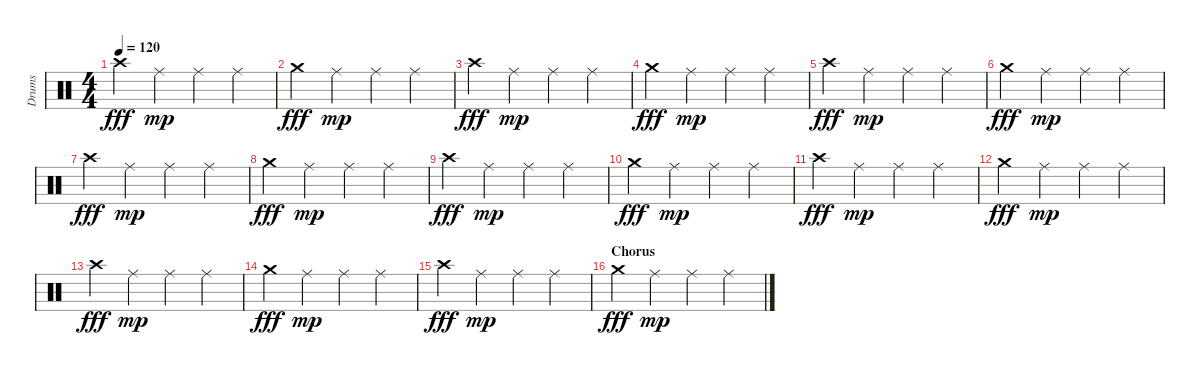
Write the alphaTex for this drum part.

\track ("Drums" "Drums") {instrument percussion}
\staff {score}
\articulation defaults
\ts (4 4)
\tempo 120
\clef neutral
\ks c "Crash high (hit)".4{dy fff} "Ride (middle)".4{dy mp} "Ride (middle)".4 "Ride (middle)".4
|
"Crash medium (hit)".4{dy fff} "Ride (middle)".4{dy mp} "Ride (middle)".4 "Ride (middle)".4 |
"Crash high (hit)".4{dy fff} "Ride (middle)".4{dy mp} "Ride (middle)".4 "Ride (middle)".4 |
"Crash medium (hit)".4{dy fff} "Ride (middle)".4{dy mp} "Ride (middle)".4 "Ride (middle)".4 |
"Crash high (hit)".4{dy fff} "Ride (middle)".4{dy mp} "Ride (middle)".4 "Ride (middle)".4 |
"Crash medium (hit)".4{dy fff} "Ride (middle)".4{dy mp} "Ride (middle)".4 "Ride (middle)".4 |
"Crash high (hit)".4{dy fff} "Ride (middle)".4{dy mp} "Ride (middle)".4 "Ride (middle)".4 |
"Crash medium (hit)".4{dy fff} "Ride (middle)".4{dy mp} "Ride (middle)".4 "Ride (middle)".4 |
"Crash high (hit)".4{dy fff} "Ride (middle)".4{dy mp} "Ride (middle)".4 "Ride (middle)".4 |
"Crash medium (hit)".4{dy fff} "Ride (middle)".4{dy mp} "Ride (middle)".4 "Ride (middle)".4 |
"Crash high (hit)".4{dy fff} "Ride (middle)".4{dy mp} "Ride (middle)".4 "Ride (middle)".4 |
"Crash medium (hit)".4{dy fff} "Ride (middle)".4{dy mp} "Ride (middle)".4 "Ride (middle)".4 |
"Crash high (hit)".4{dy fff} "Ride (middle)".4{dy mp} "Ride (middle)".4 "Ride (middle)".4 |
"Crash medium (hit)".4{dy fff} "Ride (middle)".4{dy mp} "Ride (middle)".4 "Ride (middle)".4 |
"Crash high (hit)".4{dy fff} "Ride (middle)".4{dy mp} "Ride (middle)".4 "Ride (middle)".4 |
\section ("" "Chorus")
"Crash medium (hit)".4{dy fff} "Ride (middle)".4{dy mp} "Ride (middle)".4 "Ride (middle)".4
